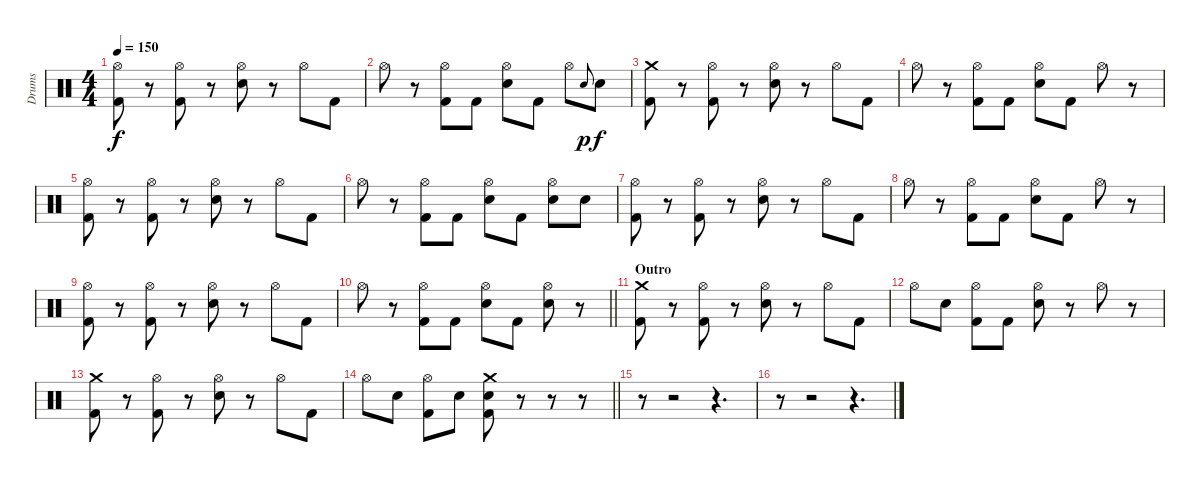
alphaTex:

\track ("Drums" "Drums") {instrument percussion}
\staff {score}
\articulation defaults
\ts (4 4)
\tempo 150
\clef neutral
\ks c
("Hi-Hat (open)" "Kick (hit) 2").8{dy f} r.8 ("Hi-Hat (open)" "Kick (hit) 2").8 r.8 ("Hi-Hat (open)" "Snare (hit) 2").8 r.8 "Hi-Hat (open)".8 "Kick (hit) 2".8 |
"Hi-Hat (open)".8 r.8 ("Hi-Hat (open)" "Kick (hit) 2").8 "Kick (hit) 2".8 ("Hi-Hat (open)" "Snare (hit) 2").8 "Kick (hit) 2".8 "Hi-Hat (open)".8 "Snare (hit)".8{gr onbeat dy p} "Snare (hit) 2".8{dy f} |
("Crash medium (hit)" "Kick (hit) 2").8 r.8 ("Hi-Hat (open)" "Kick (hit) 2").8 r.8 ("Hi-Hat (open)" "Snare (hit) 2").8 r.8 "Hi-Hat (open)".8 "Kick (hit) 2".8 |
"Hi-Hat (open)".8 r.8 ("Hi-Hat (open)" "Kick (hit) 2").8 "Kick (hit) 2".8 ("Hi-Hat (open)" "Snare (hit) 2").8 "Kick (hit) 2".8 "Hi-Hat (open)".8 r.8 |
("Hi-Hat (open)" "Kick (hit) 2").8 r.8 ("Hi-Hat (open)" "Kick (hit) 2").8 r.8 ("Hi-Hat (open)" "Snare (hit) 2").8 r.8 "Hi-Hat (open)".8 "Kick (hit) 2".8 |
"Hi-Hat (open)".8 r.8 ("Hi-Hat (open)" "Kick (hit) 2").8 "Kick (hit) 2".8 ("Hi-Hat (open)" "Snare (hit) 2").8 "Kick (hit) 2".8 ("Hi-Hat (open)" "Snare (hit) 2").8 "Snare (hit) 2".8 |
("Hi-Hat (open)" "Kick (hit) 2").8 r.8 ("Hi-Hat (open)" "Kick (hit) 2").8 r.8 ("Hi-Hat (open)" "Snare (hit) 2").8 r.8 "Hi-Hat (open)".8 "Kick (hit) 2".8 |
"Hi-Hat (open)".8 r.8 ("Hi-Hat (open)" "Kick (hit) 2").8 "Kick (hit) 2".8 ("Hi-Hat (open)" "Snare (hit) 2").8 "Kick (hit) 2".8 "Hi-Hat (open)".8 r.8 |
("Hi-Hat (open)" "Kick (hit) 2").8 r.8 ("Hi-Hat (open)" "Kick (hit) 2").8 r.8 ("Hi-Hat (open)" "Snare (hit) 2").8 r.8 "Hi-Hat (open)".8 "Kick (hit) 2".8 |
\barLineRight lightlight "Hi-Hat (open)".8
r.8 ("Hi-Hat (open)" "Kick (hit) 2").8 "Kick (hit) 2".8 ("Hi-Hat (open)" "Snare (hit) 2").8 "Kick (hit) 2".8 ("Hi-Hat (open)" "Snare (hit) 2").8 r.8 |
\section ("" "Outro")
("Crash medium (hit)" "Kick (hit) 2").8 r.8 ("Hi-Hat (open)" "Kick (hit) 2").8 r.8 ("Hi-Hat (open)" "Snare (hit) 2").8 r.8 "Hi-Hat (open)".8 "Kick (hit) 2".8 |
"Hi-Hat (open)".8 "Snare (hit) 2".8 ("Hi-Hat (open)" "Kick (hit) 2").8 "Kick (hit) 2".8 ("Hi-Hat (open)" "Snare (hit) 2").8 r.8 "Hi-Hat (open)".8 r.8 |
("Crash medium (hit)" "Kick (hit) 2").8 r.8 ("Hi-Hat (open)" "Kick (hit) 2").8 r.8 ("Hi-Hat (open)" "Snare (hit) 2").8 r.8 "Hi-Hat (open)".8 "Kick (hit) 2".8 |
\barLineRight lightlight "Hi-Hat (open)".8 "Snare (hit) 2".8
("Hi-Hat (open)" "Kick (hit) 2").8 "Snare (hit) 2".8 ("Crash medium (hit)" "Snare (hit) 2" "Kick (hit) 2").8 r.8 r.8 r.8 |
r.8 r.2 r.4{d} |
r.8 r.2 r.4{d}
